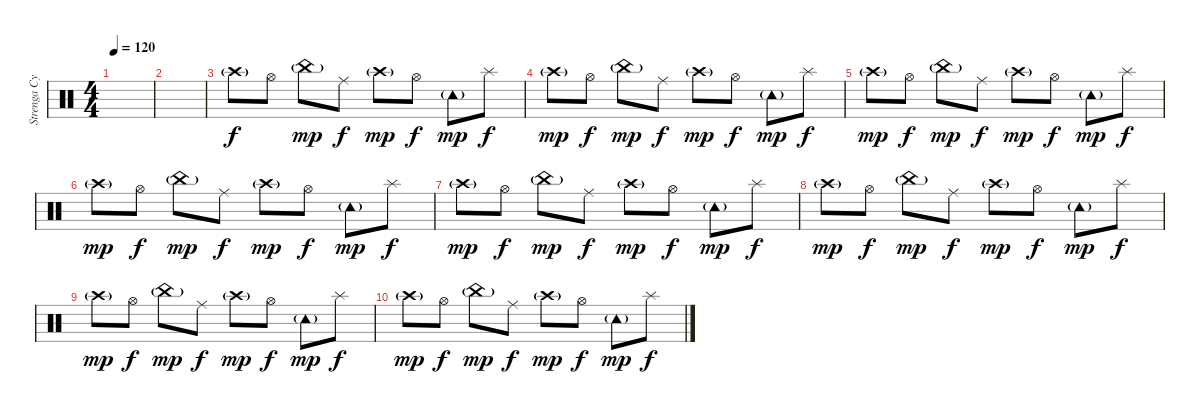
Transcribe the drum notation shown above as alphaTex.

\track ("Strenga Cymbals efekt - Tarkin" "Strenga Cy") {instrument percussion}
\staff {score}
\articulation defaults
\ts (4 4)
\tempo 120
\clef neutral
\ks c
|
|
"Crash high (hit)"{g}.8 "Hi-Hat (open)".8{dy f} "China (hit)"{g}.8{dy mp} "Ride (middle)".8{dy f} "Crash high (hit)"{g}.8{dy mp} "Hi-Hat (open)".8{dy f} "Tambourine (hit)"{g}.8{dy mp} "Splash (hit)".8{dy f} |
"Crash high (hit)"{g}.8{dy mp} "Hi-Hat (open)".8{dy f} "China (hit)"{g}.8{dy mp} "Ride (middle)".8{dy f} "Crash high (hit)"{g}.8{dy mp} "Hi-Hat (open)".8{dy f} "Tambourine (hit)"{g}.8{dy mp} "Splash (hit)".8{dy f} |
"Crash high (hit)"{g}.8{dy mp} "Hi-Hat (open)".8{dy f} "China (hit)"{g}.8{dy mp} "Ride (middle)".8{dy f} "Crash high (hit)"{g}.8{dy mp} "Hi-Hat (open)".8{dy f} "Tambourine (hit)"{g}.8{dy mp} "Splash (hit)".8{dy f} |
"Crash high (hit)"{g}.8{dy mp} "Hi-Hat (open)".8{dy f} "China (hit)"{g}.8{dy mp} "Ride (middle)".8{dy f} "Crash high (hit)"{g}.8{dy mp} "Hi-Hat (open)".8{dy f} "Tambourine (hit)"{g}.8{dy mp} "Splash (hit)".8{dy f} |
"Crash high (hit)"{g}.8{dy mp} "Hi-Hat (open)".8{dy f} "China (hit)"{g}.8{dy mp} "Ride (middle)".8{dy f} "Crash high (hit)"{g}.8{dy mp} "Hi-Hat (open)".8{dy f} "Tambourine (hit)"{g}.8{dy mp} "Splash (hit)".8{dy f} |
"Crash high (hit)"{g}.8{dy mp} "Hi-Hat (open)".8{dy f} "China (hit)"{g}.8{dy mp} "Ride (middle)".8{dy f} "Crash high (hit)"{g}.8{dy mp} "Hi-Hat (open)".8{dy f} "Tambourine (hit)"{g}.8{dy mp} "Splash (hit)".8{dy f} |
"Crash high (hit)"{g}.8{dy mp} "Hi-Hat (open)".8{dy f} "China (hit)"{g}.8{dy mp} "Ride (middle)".8{dy f} "Crash high (hit)"{g}.8{dy mp} "Hi-Hat (open)".8{dy f} "Tambourine (hit)"{g}.8{dy mp} "Splash (hit)".8{dy f} |
"Crash high (hit)"{g}.8{dy mp} "Hi-Hat (open)".8{dy f} "China (hit)"{g}.8{dy mp} "Ride (middle)".8{dy f} "Crash high (hit)"{g}.8{dy mp} "Hi-Hat (open)".8{dy f} "Tambourine (hit)"{g}.8{dy mp} "Splash (hit)".8{dy f}
